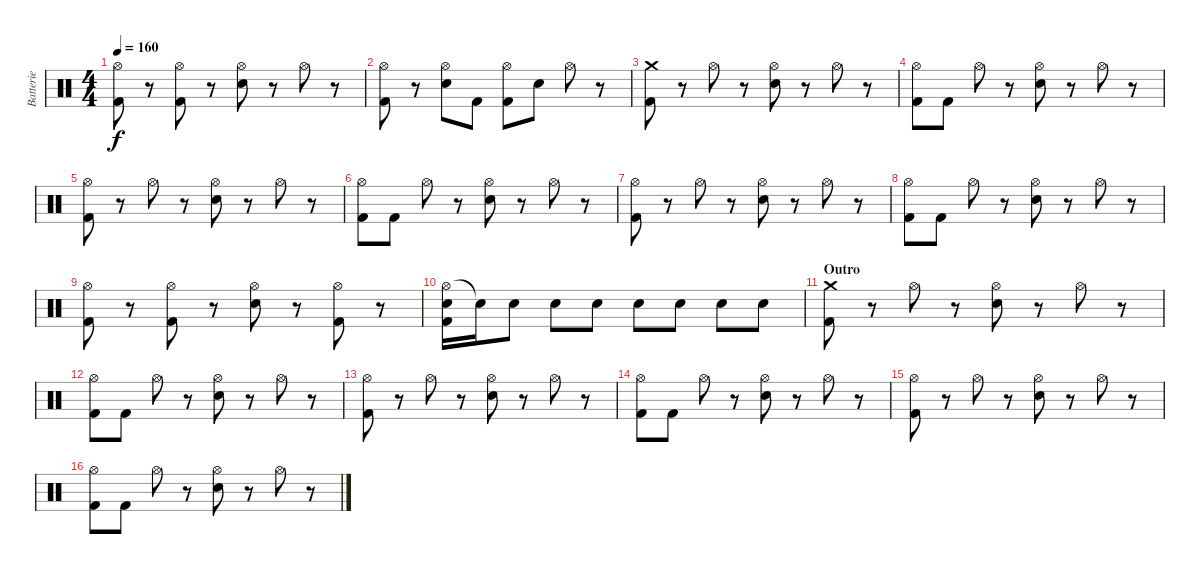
\track ("Batterie" "Batterie") {instrument percussion}
\staff {score}
\articulation defaults
\ts (4 4)
\tempo 160
\clef neutral
\ks c
("Hi-Hat (open)" "Kick (hit) 2").8{dy f} r.8 ("Hi-Hat (open)" "Kick (hit) 2").8 r.8 ("Hi-Hat (open)" "Electric Snare (hit)").8 r.8 "Hi-Hat (open)".8 r.8 |
("Hi-Hat (open)" "Kick (hit) 2").8 r.8 ("Hi-Hat (open)" "Electric Snare (hit)").8 "Kick (hit) 2".8 ("Hi-Hat (open)" "Kick (hit) 2").8 "Electric Snare (hit)".8 "Hi-Hat (open)".8 r.8 |
("Crash medium (hit)" "Kick (hit) 2").8 r.8 "Hi-Hat (open)".8 r.8 ("Hi-Hat (open)" "Electric Snare (hit)").8 r.8 "Hi-Hat (open)".8 r.8 |
("Hi-Hat (open)" "Kick (hit) 2").8 "Kick (hit) 2".8 "Hi-Hat (open)".8 r.8 ("Hi-Hat (open)" "Electric Snare (hit)").8 r.8 "Hi-Hat (open)".8 r.8 |
("Hi-Hat (open)" "Kick (hit) 2").8 r.8 "Hi-Hat (open)".8 r.8 ("Hi-Hat (open)" "Electric Snare (hit)").8 r.8 "Hi-Hat (open)".8 r.8 |
("Hi-Hat (open)" "Kick (hit) 2").8 "Kick (hit) 2".8 "Hi-Hat (open)".8 r.8 ("Hi-Hat (open)" "Electric Snare (hit)").8 r.8 "Hi-Hat (open)".8 r.8 |
("Hi-Hat (open)" "Kick (hit) 2").8 r.8 "Hi-Hat (open)".8 r.8 ("Hi-Hat (open)" "Electric Snare (hit)").8 r.8 "Hi-Hat (open)".8 r.8 |
("Hi-Hat (open)" "Kick (hit) 2").8 "Kick (hit) 2".8 "Hi-Hat (open)".8 r.8 ("Hi-Hat (open)" "Electric Snare (hit)").8 r.8 "Hi-Hat (open)".8 r.8 |
("Hi-Hat (open)" "Kick (hit) 2").8 r.8 ("Hi-Hat (open)" "Kick (hit) 2").8 r.8 ("Hi-Hat (open)" "Electric Snare (hit)").8 r.8 ("Hi-Hat (open)" "Kick (hit) 2").8 r.8 |
("Hi-Hat (open)" "Electric Snare (hit)" "Kick (hit) 2").16 "Snare (hit)"{t}.16 "Electric Snare (hit)".8 "Electric Snare (hit)".8 "Electric Snare (hit)".8 "Electric Snare (hit)".8 "Electric Snare (hit)".8 "Electric Snare (hit)".8 "Electric Snare (hit)".8 |
\section ("" "Outro")
("Crash medium (hit)" "Kick (hit) 2").8 r.8 "Hi-Hat (open)".8 r.8 ("Hi-Hat (open)" "Electric Snare (hit)").8 r.8 "Hi-Hat (open)".8 r.8 |
("Hi-Hat (open)" "Kick (hit) 2").8 "Kick (hit) 2".8 "Hi-Hat (open)".8 r.8 ("Hi-Hat (open)" "Electric Snare (hit)").8 r.8 "Hi-Hat (open)".8 r.8 |
("Hi-Hat (open)" "Kick (hit) 2").8 r.8 "Hi-Hat (open)".8 r.8 ("Hi-Hat (open)" "Electric Snare (hit)").8 r.8 "Hi-Hat (open)".8 r.8 |
("Hi-Hat (open)" "Kick (hit) 2").8 "Kick (hit) 2".8 "Hi-Hat (open)".8 r.8 ("Hi-Hat (open)" "Electric Snare (hit)").8 r.8 "Hi-Hat (open)".8 r.8 |
("Hi-Hat (open)" "Kick (hit) 2").8 r.8 "Hi-Hat (open)".8 r.8 ("Hi-Hat (open)" "Electric Snare (hit)").8 r.8 "Hi-Hat (open)".8 r.8 |
("Hi-Hat (open)" "Kick (hit) 2").8 "Kick (hit) 2".8 "Hi-Hat (open)".8 r.8 ("Hi-Hat (open)" "Electric Snare (hit)").8 r.8 "Hi-Hat (open)".8 r.8
